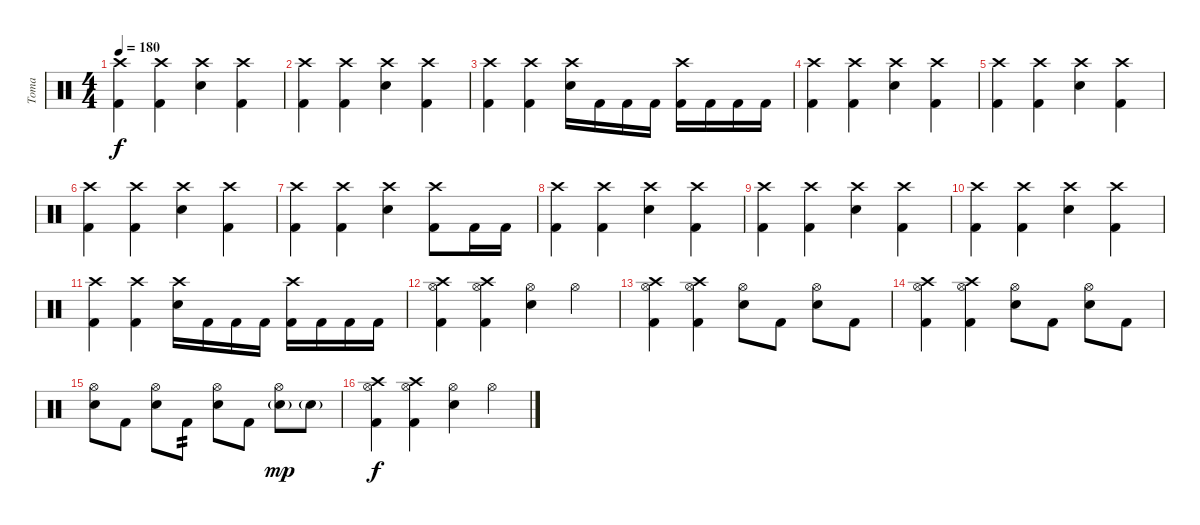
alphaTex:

\track ("Toma" "Toma") {instrument percussion}
\staff {score}
\articulation defaults
\ts (4 4)
\tempo 180
\clef neutral
\ks c
("Crash high (hit)" "Kick (hit) 2").4{dy f} ("Crash high (hit)" "Kick (hit) 2").4 ("Crash high (hit)" "Electric Snare (hit)").4 ("Crash high (hit)" "Kick (hit) 2").4 |
("Crash high (hit)" "Kick (hit) 2").4 ("Crash high (hit)" "Kick (hit) 2").4 ("Crash high (hit)" "Electric Snare (hit)").4 ("Crash high (hit)" "Kick (hit) 2").4 |
("Crash high (hit)" "Kick (hit) 2").4 ("Crash high (hit)" "Kick (hit) 2").4 ("Crash high (hit)" "Electric Snare (hit)").16 "Kick (hit) 2".16 "Kick (hit) 2".16 "Kick (hit) 2".16 ("Crash high (hit)" "Kick (hit) 2").16 "Kick (hit) 2".16 "Kick (hit) 2".16 "Kick (hit) 2".16 |
("Crash high (hit)" "Kick (hit) 2").4 ("Crash high (hit)" "Kick (hit) 2").4 ("Crash high (hit)" "Electric Snare (hit)").4 ("Crash high (hit)" "Kick (hit) 2").4 |
("Crash high (hit)" "Kick (hit) 2").4 ("Crash high (hit)" "Kick (hit) 2").4 ("Crash high (hit)" "Electric Snare (hit)").4 ("Crash high (hit)" "Kick (hit) 2").4 |
("Crash high (hit)" "Kick (hit) 2").4 ("Crash high (hit)" "Kick (hit) 2").4 ("Crash high (hit)" "Electric Snare (hit)").4 ("Crash high (hit)" "Kick (hit) 2").4 |
("Crash high (hit)" "Kick (hit) 2").4 ("Crash high (hit)" "Kick (hit) 2").4 ("Crash high (hit)" "Electric Snare (hit)").4 ("Crash high (hit)" "Kick (hit) 2").8 "Kick (hit) 2".16 "Kick (hit) 2".16 |
("Crash high (hit)" "Kick (hit) 2").4 ("Crash high (hit)" "Kick (hit) 2").4 ("Crash high (hit)" "Electric Snare (hit)").4 ("Crash high (hit)" "Kick (hit) 2").4 |
("Crash high (hit)" "Kick (hit) 2").4 ("Crash high (hit)" "Kick (hit) 2").4 ("Crash high (hit)" "Electric Snare (hit)").4 ("Crash high (hit)" "Kick (hit) 2").4 |
("Crash high (hit)" "Kick (hit) 2").4 ("Crash high (hit)" "Kick (hit) 2").4 ("Crash high (hit)" "Electric Snare (hit)").4 ("Crash high (hit)" "Kick (hit) 2").4 |
("Crash high (hit)" "Kick (hit) 2").4 ("Crash high (hit)" "Kick (hit) 2").4 ("Crash high (hit)" "Electric Snare (hit)").16 "Kick (hit) 2".16 "Kick (hit) 2".16 "Kick (hit) 2".16 ("Crash high (hit)" "Kick (hit) 2").16 "Kick (hit) 2".16 "Kick (hit) 2".16 "Kick (hit) 2".16 |
("Crash high (hit)" "Hi-Hat (open)" "Kick (hit) 2").4 ("Crash high (hit)" "Hi-Hat (open)" "Kick (hit) 2").4 ("Hi-Hat (open)" "Electric Snare (hit)").4 "Hi-Hat (open)".4 |
("Crash high (hit)" "Hi-Hat (open)" "Kick (hit) 2").4 ("Crash high (hit)" "Hi-Hat (open)" "Kick (hit) 2").4 ("Hi-Hat (open)" "Electric Snare (hit)").8 "Kick (hit) 2".8 ("Hi-Hat (open)" "Snare (hit)").8 "Kick (hit) 2".8 |
("Crash high (hit)" "Hi-Hat (open)" "Kick (hit) 2").4 ("Crash high (hit)" "Hi-Hat (open)" "Kick (hit) 2").4 ("Hi-Hat (open)" "Electric Snare (hit)").8 "Kick (hit) 2".8 ("Hi-Hat (open)" "Snare (hit)").8 "Kick (hit) 2".8 |
("Hi-Hat (open)" "Snare (hit)").8 "Kick (hit) 2".8 ("Hi-Hat (open)" "Snare (hit)").8 "Kick (hit) 2".8{tp 2} ("Hi-Hat (open)" "Electric Snare (hit)").8 "Kick (hit) 2".8 ("Hi-Hat (open)" "Electric Snare (hit)"{g}).8{dy mp} "Electric Snare (hit)"{g}.8 |
("Crash high (hit)" "Hi-Hat (open)" "Kick (hit) 2").4{dy f} ("Crash high (hit)" "Hi-Hat (open)" "Kick (hit) 2").4 ("Hi-Hat (open)" "Electric Snare (hit)").4 "Hi-Hat (open)".4
